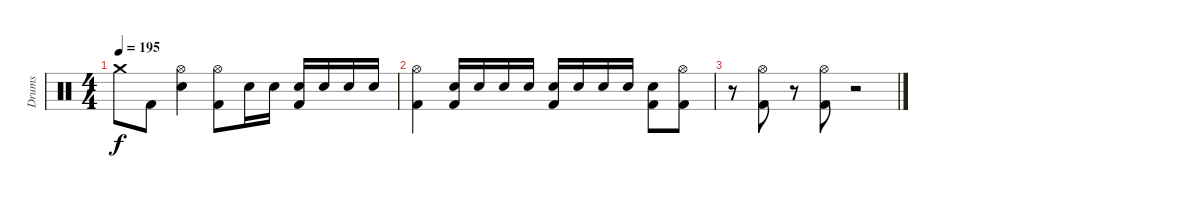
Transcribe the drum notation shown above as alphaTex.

\track ("Drums" "Drums") {instrument percussion}
\staff {score}
\articulation defaults
\ts (4 4)
\tempo 195
\clef neutral
\ks c "Crash medium (hit)"{t}.8{dy f} "Kick (hit) 2".8
("Hi-Hat (open)" "Snare (hit) 2").4 ("Hi-Hat (open)" "Kick (hit) 2").8 "Snare (hit) 2".16 "Snare (hit) 2".16 ("Snare (hit) 2" "Kick (hit) 2").16 "Snare (hit) 2".16 "Snare (hit) 2".16 "Snare (hit) 2".16 |
("Hi-Hat (open)" "Kick (hit) 2").4 ("Snare (hit) 2" "Kick (hit) 2").16 "Snare (hit) 2".16 "Snare (hit) 2".16 "Snare (hit) 2".16 ("Snare (hit) 2" "Kick (hit) 2").16 "Snare (hit) 2".16 "Snare (hit) 2".16 "Snare (hit) 2".16 ("Snare (hit) 2" "Kick (hit) 2").8 ("Hi-Hat (open)" "Kick (hit) 2").8 |
r.8 ("Hi-Hat (open)" "Kick (hit) 2").8 r.8 ("Hi-Hat (open)" "Kick (hit) 2").8 r.2
